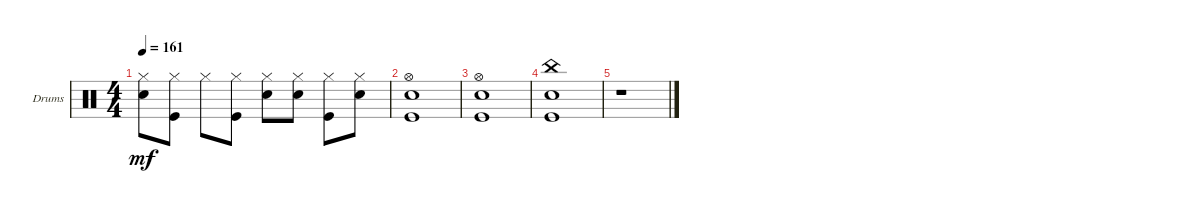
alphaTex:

\defaultSystemsLayout 4
\bracketExtendMode groupsimilarinstruments
\firstSystemTrackNameOrientation horizontal
\otherSystemsTrackNameOrientation horizontal
\chordDiagramsInScore
\track ("Drumkit" "Drums") {instrument percussion}
\staff {score}
\articulation defaults
\ts (4 4)
\tempo 161
\clef neutral
\ks c
("Hi-Hat (closed)" "Snare (hit) 2").8{dy mf} ("Hi-Hat (closed)" "Kick (hit)").8 "Hi-Hat (closed)".8 ("Hi-Hat (closed)" "Kick (hit)").8 ("Hi-Hat (closed)" "Snare (hit) 2").8 ("Hi-Hat (closed)" "Snare (hit) 2").8 ("Hi-Hat (closed)" "Kick (hit)").8 ("Hi-Hat (closed)" "Snare (hit) 2").8 |
("Snare (hit) 2" "Kick (hit)" "Hi-Hat (open)").1 |
("Snare (hit) 2" "Kick (hit)" "Hi-Hat (open)").1 |
("Snare (hit) 2" "Kick (hit)" "China (hit)").1 |
r.1
